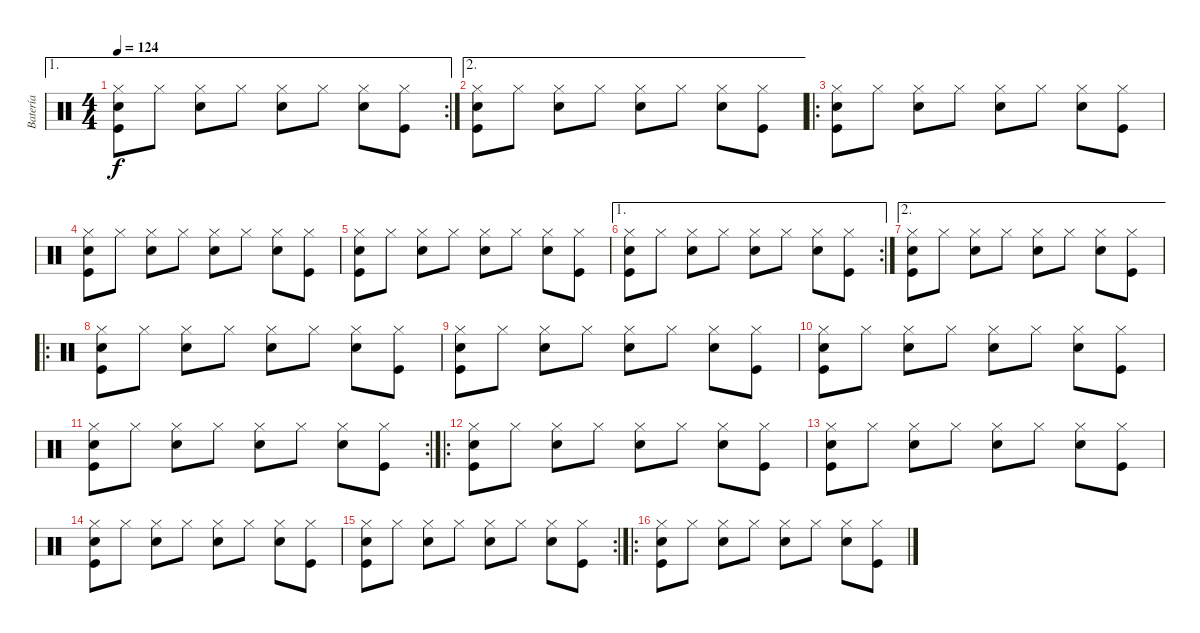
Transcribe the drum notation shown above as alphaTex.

\track ("Batería" "Batería") {instrument percussion bank 2}
\staff {score}
\articulation defaults
\ae 1
\rc 2
\ts (4 4)
\tempo 124
\clef neutral
\ks c
("Hi-Hat (closed)" "Snare (hit) 2" "Kick (hit)").8{dy f} "Hi-Hat (closed)".8 ("Hi-Hat (closed)" "Snare (hit) 2").8 "Hi-Hat (closed)".8 ("Hi-Hat (closed)" "Snare (hit) 2").8 "Hi-Hat (closed)".8 ("Hi-Hat (closed)" "Snare (hit) 2").8 ("Hi-Hat (closed)" "Kick (hit)").8 |
\ae 2
("Hi-Hat (closed)" "Snare (hit) 2" "Kick (hit)").8 "Hi-Hat (closed)".8 ("Hi-Hat (closed)" "Snare (hit) 2").8 "Hi-Hat (closed)".8 ("Hi-Hat (closed)" "Snare (hit) 2").8 "Hi-Hat (closed)".8 ("Hi-Hat (closed)" "Snare (hit) 2").8 ("Hi-Hat (closed)" "Kick (hit)").8 |
\ro
("Hi-Hat (closed)" "Snare (hit) 2" "Kick (hit)").8 "Hi-Hat (closed)".8 ("Hi-Hat (closed)" "Snare (hit) 2").8 "Hi-Hat (closed)".8 ("Hi-Hat (closed)" "Snare (hit) 2").8 "Hi-Hat (closed)".8 ("Hi-Hat (closed)" "Snare (hit) 2").8 ("Hi-Hat (closed)" "Kick (hit)").8 |
("Hi-Hat (closed)" "Snare (hit) 2" "Kick (hit)").8 "Hi-Hat (closed)".8 ("Hi-Hat (closed)" "Snare (hit) 2").8 "Hi-Hat (closed)".8 ("Hi-Hat (closed)" "Snare (hit) 2").8 "Hi-Hat (closed)".8 ("Hi-Hat (closed)" "Snare (hit) 2").8 ("Hi-Hat (closed)" "Kick (hit)").8 |
("Hi-Hat (closed)" "Snare (hit) 2" "Kick (hit)").8 "Hi-Hat (closed)".8 ("Hi-Hat (closed)" "Snare (hit) 2").8 "Hi-Hat (closed)".8 ("Hi-Hat (closed)" "Snare (hit) 2").8 "Hi-Hat (closed)".8 ("Hi-Hat (closed)" "Snare (hit) 2").8 ("Hi-Hat (closed)" "Kick (hit)").8 |
\ae 1
\rc 2
("Hi-Hat (closed)" "Snare (hit) 2" "Kick (hit)").8 "Hi-Hat (closed)".8 ("Hi-Hat (closed)" "Snare (hit) 2").8 "Hi-Hat (closed)".8 ("Hi-Hat (closed)" "Snare (hit) 2").8 "Hi-Hat (closed)".8 ("Hi-Hat (closed)" "Snare (hit) 2").8 ("Hi-Hat (closed)" "Kick (hit)").8 |
\ae 2
("Hi-Hat (closed)" "Snare (hit) 2" "Kick (hit)").8 "Hi-Hat (closed)".8 ("Hi-Hat (closed)" "Snare (hit) 2").8 "Hi-Hat (closed)".8 ("Hi-Hat (closed)" "Snare (hit) 2").8 "Hi-Hat (closed)".8 ("Hi-Hat (closed)" "Snare (hit) 2").8 ("Hi-Hat (closed)" "Kick (hit)").8 |
\ro
("Hi-Hat (closed)" "Snare (hit) 2" "Kick (hit)").8 "Hi-Hat (closed)".8 ("Hi-Hat (closed)" "Snare (hit) 2").8 "Hi-Hat (closed)".8 ("Hi-Hat (closed)" "Snare (hit) 2").8 "Hi-Hat (closed)".8 ("Hi-Hat (closed)" "Snare (hit) 2").8 ("Hi-Hat (closed)" "Kick (hit)").8 |
("Hi-Hat (closed)" "Snare (hit) 2" "Kick (hit)").8 "Hi-Hat (closed)".8 ("Hi-Hat (closed)" "Snare (hit) 2").8 "Hi-Hat (closed)".8 ("Hi-Hat (closed)" "Snare (hit) 2").8 "Hi-Hat (closed)".8 ("Hi-Hat (closed)" "Snare (hit) 2").8 ("Hi-Hat (closed)" "Kick (hit)").8 |
("Hi-Hat (closed)" "Snare (hit) 2" "Kick (hit)").8 "Hi-Hat (closed)".8 ("Hi-Hat (closed)" "Snare (hit) 2").8 "Hi-Hat (closed)".8 ("Hi-Hat (closed)" "Snare (hit) 2").8 "Hi-Hat (closed)".8 ("Hi-Hat (closed)" "Snare (hit) 2").8 ("Hi-Hat (closed)" "Kick (hit)").8 |
\rc 2
("Hi-Hat (closed)" "Snare (hit) 2" "Kick (hit)").8 "Hi-Hat (closed)".8 ("Hi-Hat (closed)" "Snare (hit) 2").8 "Hi-Hat (closed)".8 ("Hi-Hat (closed)" "Snare (hit) 2").8 "Hi-Hat (closed)".8 ("Hi-Hat (closed)" "Snare (hit) 2").8 ("Hi-Hat (closed)" "Kick (hit)").8 |
\ro
("Hi-Hat (closed)" "Snare (hit) 2" "Kick (hit)").8 "Hi-Hat (closed)".8 ("Hi-Hat (closed)" "Snare (hit) 2").8 "Hi-Hat (closed)".8 ("Hi-Hat (closed)" "Snare (hit) 2").8 "Hi-Hat (closed)".8 ("Hi-Hat (closed)" "Snare (hit) 2").8 ("Hi-Hat (closed)" "Kick (hit)").8 |
("Hi-Hat (closed)" "Snare (hit) 2" "Kick (hit)").8 "Hi-Hat (closed)".8 ("Hi-Hat (closed)" "Snare (hit) 2").8 "Hi-Hat (closed)".8 ("Hi-Hat (closed)" "Snare (hit) 2").8 "Hi-Hat (closed)".8 ("Hi-Hat (closed)" "Snare (hit) 2").8 ("Hi-Hat (closed)" "Kick (hit)").8 |
("Hi-Hat (closed)" "Snare (hit) 2" "Kick (hit)").8 "Hi-Hat (closed)".8 ("Hi-Hat (closed)" "Snare (hit) 2").8 "Hi-Hat (closed)".8 ("Hi-Hat (closed)" "Snare (hit) 2").8 "Hi-Hat (closed)".8 ("Hi-Hat (closed)" "Snare (hit) 2").8 ("Hi-Hat (closed)" "Kick (hit)").8 |
\rc 2
("Hi-Hat (closed)" "Snare (hit) 2" "Kick (hit)").8 "Hi-Hat (closed)".8 ("Hi-Hat (closed)" "Snare (hit) 2").8 "Hi-Hat (closed)".8 ("Hi-Hat (closed)" "Snare (hit) 2").8 "Hi-Hat (closed)".8 ("Hi-Hat (closed)" "Snare (hit) 2").8 ("Hi-Hat (closed)" "Kick (hit)").8 |
\ro
("Hi-Hat (closed)" "Snare (hit) 2" "Kick (hit)").8 "Hi-Hat (closed)".8 ("Hi-Hat (closed)" "Snare (hit) 2").8 "Hi-Hat (closed)".8 ("Hi-Hat (closed)" "Snare (hit) 2").8 "Hi-Hat (closed)".8 ("Hi-Hat (closed)" "Snare (hit) 2").8 ("Hi-Hat (closed)" "Kick (hit)").8
